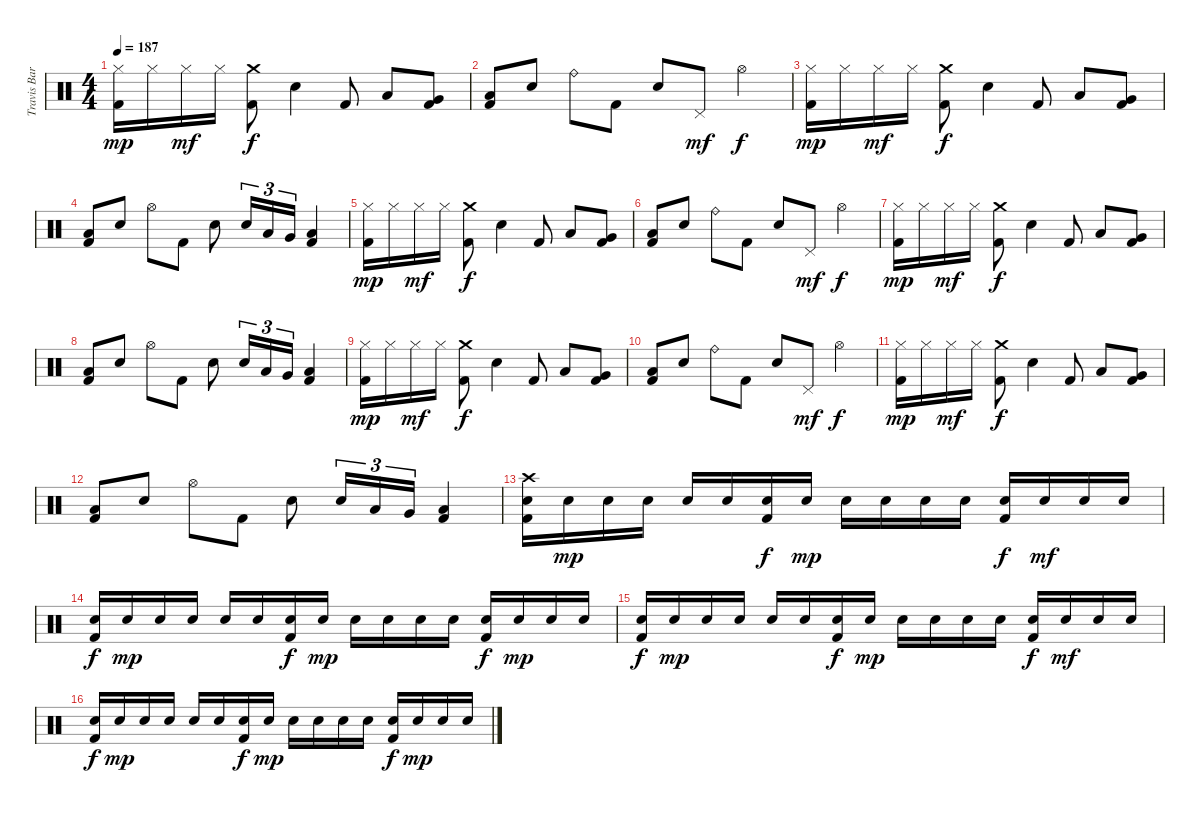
\track ("Travis Barker Drums" "Travis Bar") {instrument percussion}
\staff {score}
\articulation defaults
\ts (4 4)
\tempo 187
\clef neutral
\ks c
("Hi-Hat (closed)" "Kick (hit) 2").16{dy mp} "Hi-Hat (closed)".16 "Hi-Hat (closed)".16{dy mf} "Hi-Hat (closed)".16 ("Crash medium (hit)" "Kick (hit) 2").8{dy f} "Electric Snare (hit)".4 "Kick (hit) 2".8 "Low Tom (hit)".8 ("Very Low Tom (hit)" "Kick (hit) 2").8 |
("Low Floor Tom (hit)" "Kick (hit) 2").8 "Electric Snare (hit)".8 "Ride (bell)".8 "Kick (hit) 2".8 "Electric Snare (hit)".8 "Pedal Hi-Hat (hit)".8{dy mf} "Hi-Hat (open)".4{dy f} |
("Hi-Hat (closed)" "Kick (hit) 2").16{dy mp} "Hi-Hat (closed)".16 "Hi-Hat (closed)".16{dy mf} "Hi-Hat (closed)".16 ("Crash medium (hit)" "Kick (hit) 2").8{dy f} "Electric Snare (hit)".4 "Kick (hit) 2".8 "Low Tom (hit)".8 ("Very Low Tom (hit)" "Kick (hit) 2").8 |
("Low Floor Tom (hit)" "Kick (hit) 2").8 "Electric Snare (hit)".8 "Hi-Hat (open)".8 "Kick (hit) 2".8 "Electric Snare (hit)".8 "Electric Snare (hit)".16{tu (3 2)} "Low Tom (hit)".16{tu (3 2)} "Very Low Tom (hit)".16{tu (3 2)} ("Low Floor Tom (hit)" "Kick (hit) 2").4 |
("Hi-Hat (closed)" "Kick (hit) 2").16{dy mp} "Hi-Hat (closed)".16 "Hi-Hat (closed)".16{dy mf} "Hi-Hat (closed)".16 ("Crash medium (hit)" "Kick (hit) 2").8{dy f} "Electric Snare (hit)".4 "Kick (hit) 2".8 "Low Tom (hit)".8 ("Very Low Tom (hit)" "Kick (hit) 2").8 |
("Low Floor Tom (hit)" "Kick (hit) 2").8 "Electric Snare (hit)".8 "Ride (bell)".8 "Kick (hit) 2".8 "Electric Snare (hit)".8 "Pedal Hi-Hat (hit)".8{dy mf} "Hi-Hat (open)".4{dy f} |
("Hi-Hat (closed)" "Kick (hit) 2").16{dy mp} "Hi-Hat (closed)".16 "Hi-Hat (closed)".16{dy mf} "Hi-Hat (closed)".16 ("Crash medium (hit)" "Kick (hit) 2").8{dy f} "Electric Snare (hit)".4 "Kick (hit) 2".8 "Low Tom (hit)".8 ("Very Low Tom (hit)" "Kick (hit) 2").8 |
("Low Floor Tom (hit)" "Kick (hit) 2").8 "Electric Snare (hit)".8 "Hi-Hat (open)".8 "Kick (hit) 2".8 "Electric Snare (hit)".8 "Electric Snare (hit)".16{tu (3 2)} "Low Tom (hit)".16{tu (3 2)} "Very Low Tom (hit)".16{tu (3 2)} ("Low Floor Tom (hit)" "Kick (hit) 2").4 |
("Hi-Hat (closed)" "Kick (hit) 2").16{dy mp} "Hi-Hat (closed)".16 "Hi-Hat (closed)".16{dy mf} "Hi-Hat (closed)".16 ("Crash medium (hit)" "Kick (hit) 2").8{dy f} "Electric Snare (hit)".4 "Kick (hit) 2".8 "Low Tom (hit)".8 ("Very Low Tom (hit)" "Kick (hit) 2").8 |
("Low Floor Tom (hit)" "Kick (hit) 2").8 "Electric Snare (hit)".8 "Ride (bell)".8 "Kick (hit) 2".8 "Electric Snare (hit)".8 "Pedal Hi-Hat (hit)".8{dy mf} "Hi-Hat (open)".4{dy f} |
("Hi-Hat (closed)" "Kick (hit) 2").16{dy mp} "Hi-Hat (closed)".16 "Hi-Hat (closed)".16{dy mf} "Hi-Hat (closed)".16 ("Crash medium (hit)" "Kick (hit) 2").8{dy f} "Electric Snare (hit)".4 "Kick (hit) 2".8 "Low Tom (hit)".8 ("Very Low Tom (hit)" "Kick (hit) 2").8 |
("Low Floor Tom (hit)" "Kick (hit) 2").8 "Electric Snare (hit)".8 "Hi-Hat (open)".8 "Kick (hit) 2".8 "Electric Snare (hit)".8 "Electric Snare (hit)".16{tu (3 2)} "Low Tom (hit)".16{tu (3 2)} "Very Low Tom (hit)".16{tu (3 2)} ("Low Floor Tom (hit)" "Kick (hit) 2").4 |
("Crash high (hit)" "Electric Snare (hit)" "Kick (hit) 2").16 "Electric Snare (hit)".16{dy mp} "Electric Snare (hit)".16 "Electric Snare (hit)".16 "Electric Snare (hit)".16 "Electric Snare (hit)".16 ("Electric Snare (hit)" "Kick (hit) 2").16{dy f} "Electric Snare (hit)".16{dy mp} "Electric Snare (hit)".16 "Electric Snare (hit)".16 "Electric Snare (hit)".16 "Electric Snare (hit)".16 ("Electric Snare (hit)" "Kick (hit) 2").16{dy f} "Electric Snare (hit)".16{dy mf} "Electric Snare (hit)".16 "Electric Snare (hit)".16 |
("Electric Snare (hit)" "Kick (hit) 2").16{dy f} "Electric Snare (hit)".16{dy mp} "Electric Snare (hit)".16 "Electric Snare (hit)".16 "Electric Snare (hit)".16 "Electric Snare (hit)".16 ("Electric Snare (hit)" "Kick (hit) 2").16{dy f} "Electric Snare (hit)".16{dy mp} "Electric Snare (hit)".16 "Electric Snare (hit)".16 "Electric Snare (hit)".16 "Electric Snare (hit)".16 ("Electric Snare (hit)" "Kick (hit) 2").16{dy f} "Electric Snare (hit)".16{dy mp} "Electric Snare (hit)".16 "Electric Snare (hit)".16 |
("Electric Snare (hit)" "Kick (hit) 2").16{dy f} "Electric Snare (hit)".16{dy mp} "Electric Snare (hit)".16 "Electric Snare (hit)".16 "Electric Snare (hit)".16 "Electric Snare (hit)".16 ("Electric Snare (hit)" "Kick (hit) 2").16{dy f} "Electric Snare (hit)".16{dy mp} "Electric Snare (hit)".16 "Electric Snare (hit)".16 "Electric Snare (hit)".16 "Electric Snare (hit)".16 ("Electric Snare (hit)" "Kick (hit) 2").16{dy f} "Electric Snare (hit)".16{dy mf} "Electric Snare (hit)".16 "Electric Snare (hit)".16 |
("Electric Snare (hit)" "Kick (hit) 2").16{dy f} "Electric Snare (hit)".16{dy mp} "Electric Snare (hit)".16 "Electric Snare (hit)".16 "Electric Snare (hit)".16 "Electric Snare (hit)".16 ("Electric Snare (hit)" "Kick (hit) 2").16{dy f} "Electric Snare (hit)".16{dy mp} "Electric Snare (hit)".16 "Electric Snare (hit)".16 "Electric Snare (hit)".16 "Electric Snare (hit)".16 ("Electric Snare (hit)" "Kick (hit) 2").16{dy f} "Electric Snare (hit)".16{dy mp} "Electric Snare (hit)".16 "Electric Snare (hit)".16
